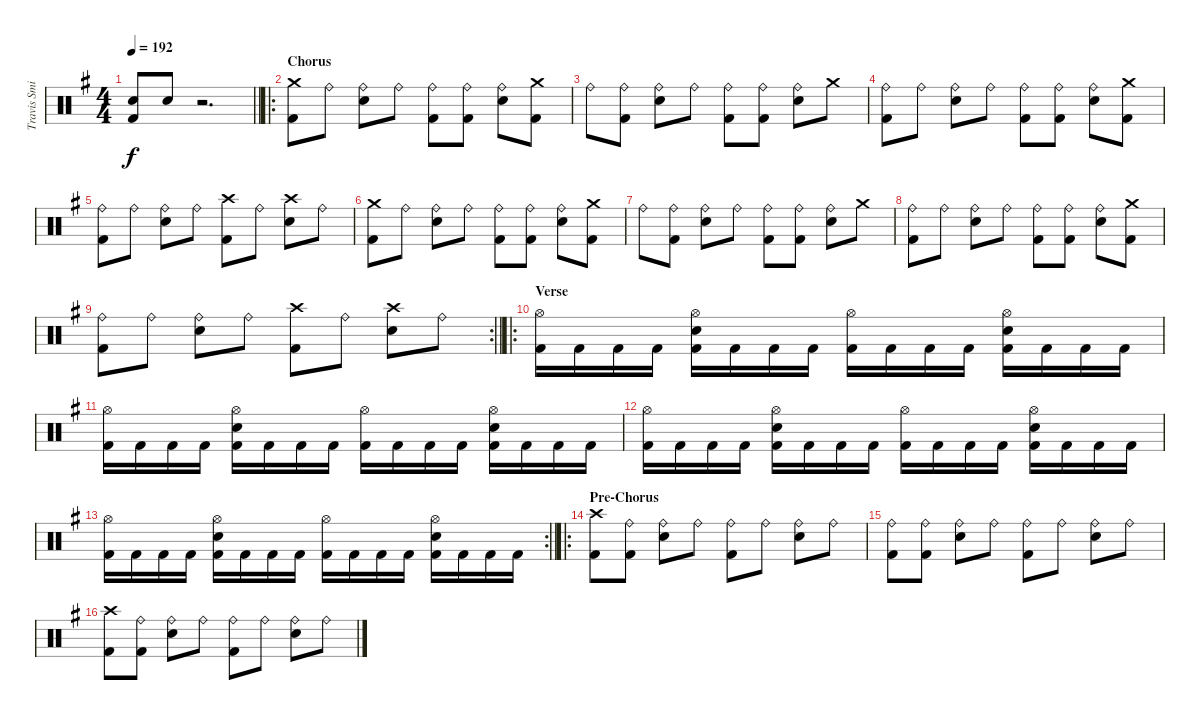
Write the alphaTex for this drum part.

\track ("Travis Smith" "Travis Smi") {instrument percussion}
\staff {score}
\articulation defaults
\ts (4 4)
\tempo 192
\clef neutral
\barLineRight lightlight
\ks eminor
("Snare (hit) 2" "Kick (hit) 2").8{dy f} "Snare (hit) 2".8 r.2{d} |
\ro
\section ("" "Chorus")
("Crash medium (hit)" "Kick (hit) 2").8 "Ride (bell)".8 ("Ride (bell)" "Snare (hit) 2").8 "Ride (bell)".8 ("Ride (bell)" "Kick (hit) 2").8 ("Ride (bell)" "Kick (hit) 2").8 ("Ride (bell)" "Snare (hit) 2").8 ("Crash medium (hit)" "Kick (hit) 2").8 |
"Ride (bell)".8 ("Ride (bell)" "Kick (hit) 2").8 ("Ride (bell)" "Snare (hit) 2").8 "Ride (bell)".8 ("Ride (bell)" "Kick (hit) 2").8 ("Ride (bell)" "Kick (hit) 2").8 ("Ride (bell)" "Snare (hit) 2").8 "Crash medium (hit)".8 |
("Ride (bell)" "Kick (hit) 2").8 "Ride (bell)".8 ("Ride (bell)" "Snare (hit) 2").8 "Ride (bell)".8 ("Ride (bell)" "Kick (hit) 2").8 ("Ride (bell)" "Kick (hit) 2").8 ("Ride (bell)" "Snare (hit) 2").8 ("Crash medium (hit)" "Kick (hit) 2").8 |
("Ride (bell)" "Kick (hit) 2").8 "Ride (bell)".8 ("Ride (bell)" "Snare (hit) 2").8 "Ride (bell)".8 ("Crash high (hit)" "Kick (hit) 2").8 "Ride (bell)".8 ("Crash high (hit)" "Snare (hit) 2").8 "Ride (bell)".8 |
("Crash medium (hit)" "Kick (hit) 2").8 "Ride (bell)".8 ("Ride (bell)" "Snare (hit) 2").8 "Ride (bell)".8 ("Ride (bell)" "Kick (hit) 2").8 ("Ride (bell)" "Kick (hit) 2").8 ("Ride (bell)" "Snare (hit) 2").8 ("Crash medium (hit)" "Kick (hit) 2").8 |
"Ride (bell)".8 ("Ride (bell)" "Kick (hit) 2").8 ("Ride (bell)" "Snare (hit) 2").8 "Ride (bell)".8 ("Ride (bell)" "Kick (hit) 2").8 ("Ride (bell)" "Kick (hit) 2").8 ("Ride (bell)" "Snare (hit) 2").8 "Crash medium (hit)".8 |
("Ride (bell)" "Kick (hit) 2").8 "Ride (bell)".8 ("Ride (bell)" "Snare (hit) 2").8 "Ride (bell)".8 ("Ride (bell)" "Kick (hit) 2").8 ("Ride (bell)" "Kick (hit) 2").8 ("Ride (bell)" "Snare (hit) 2").8 ("Crash medium (hit)" "Kick (hit) 2").8 |
\rc 2
\barLineRight lightlight
("Ride (bell)" "Kick (hit) 2").8 "Ride (bell)".8 ("Ride (bell)" "Snare (hit) 2").8 "Ride (bell)".8 ("Crash high (hit)" "Kick (hit) 2").8 "Ride (bell)".8 ("Crash high (hit)" "Snare (hit) 2").8 "Ride (bell)".8 |
\ro
\section ("" "Verse")
("Hi-Hat (open)" "Kick (hit) 2").16 "Kick (hit) 2".16 "Kick (hit) 2".16 "Kick (hit) 2".16 ("Hi-Hat (open)" "Snare (hit) 2" "Kick (hit) 2").16 "Kick (hit) 2".16 "Kick (hit) 2".16 "Kick (hit) 2".16 ("Hi-Hat (open)" "Kick (hit) 2").16 "Kick (hit) 2".16 "Kick (hit) 2".16 "Kick (hit) 2".16 ("Hi-Hat (open)" "Snare (hit) 2" "Kick (hit) 2").16 "Kick (hit) 2".16 "Kick (hit) 2".16 "Kick (hit) 2".16 |
("Hi-Hat (open)" "Kick (hit) 2").16 "Kick (hit) 2".16 "Kick (hit) 2".16 "Kick (hit) 2".16 ("Hi-Hat (open)" "Snare (hit) 2" "Kick (hit) 2").16 "Kick (hit) 2".16 "Kick (hit) 2".16 "Kick (hit) 2".16 ("Hi-Hat (open)" "Kick (hit) 2").16 "Kick (hit) 2".16 "Kick (hit) 2".16 "Kick (hit) 2".16 ("Hi-Hat (open)" "Snare (hit) 2" "Kick (hit) 2").16 "Kick (hit) 2".16 "Kick (hit) 2".16 "Kick (hit) 2".16 |
("Hi-Hat (open)" "Kick (hit) 2").16 "Kick (hit) 2".16 "Kick (hit) 2".16 "Kick (hit) 2".16 ("Hi-Hat (open)" "Snare (hit) 2" "Kick (hit) 2").16 "Kick (hit) 2".16 "Kick (hit) 2".16 "Kick (hit) 2".16 ("Hi-Hat (open)" "Kick (hit) 2").16 "Kick (hit) 2".16 "Kick (hit) 2".16 "Kick (hit) 2".16 ("Hi-Hat (open)" "Snare (hit) 2" "Kick (hit) 2").16 "Kick (hit) 2".16 "Kick (hit) 2".16 "Kick (hit) 2".16 |
\rc 2
\barLineRight lightlight
("Hi-Hat (open)" "Kick (hit) 2").16 "Kick (hit) 2".16 "Kick (hit) 2".16 "Kick (hit) 2".16 ("Hi-Hat (open)" "Snare (hit) 2" "Kick (hit) 2").16 "Kick (hit) 2".16 "Kick (hit) 2".16 "Kick (hit) 2".16 ("Hi-Hat (open)" "Kick (hit) 2").16 "Kick (hit) 2".16 "Kick (hit) 2".16 "Kick (hit) 2".16 ("Hi-Hat (open)" "Snare (hit) 2" "Kick (hit) 2").16 "Kick (hit) 2".16 "Kick (hit) 2".16 "Kick (hit) 2".16 |
\ro
\section ("" "Pre-Chorus")
("Crash high (hit)" "Kick (hit) 2").8 ("Ride (bell)" "Kick (hit) 2").8 ("Ride (bell)" "Snare (hit) 2").8 "Ride (bell)".8 ("Ride (bell)" "Kick (hit) 2").8 "Ride (bell)".8 ("Ride (bell)" "Snare (hit) 2").8 "Ride (bell)".8 |
("Ride (bell)" "Kick (hit) 2").8 ("Ride (bell)" "Kick (hit) 2").8 ("Ride (bell)" "Snare (hit) 2").8 "Ride (bell)".8 ("Ride (bell)" "Kick (hit) 2").8 "Ride (bell)".8 ("Ride (bell)" "Snare (hit) 2").8 "Ride (bell)".8 |
("Crash high (hit)" "Kick (hit) 2").8 ("Ride (bell)" "Kick (hit) 2").8 ("Ride (bell)" "Snare (hit) 2").8 "Ride (bell)".8 ("Ride (bell)" "Kick (hit) 2").8 "Ride (bell)".8 ("Ride (bell)" "Snare (hit) 2").8 "Ride (bell)".8
